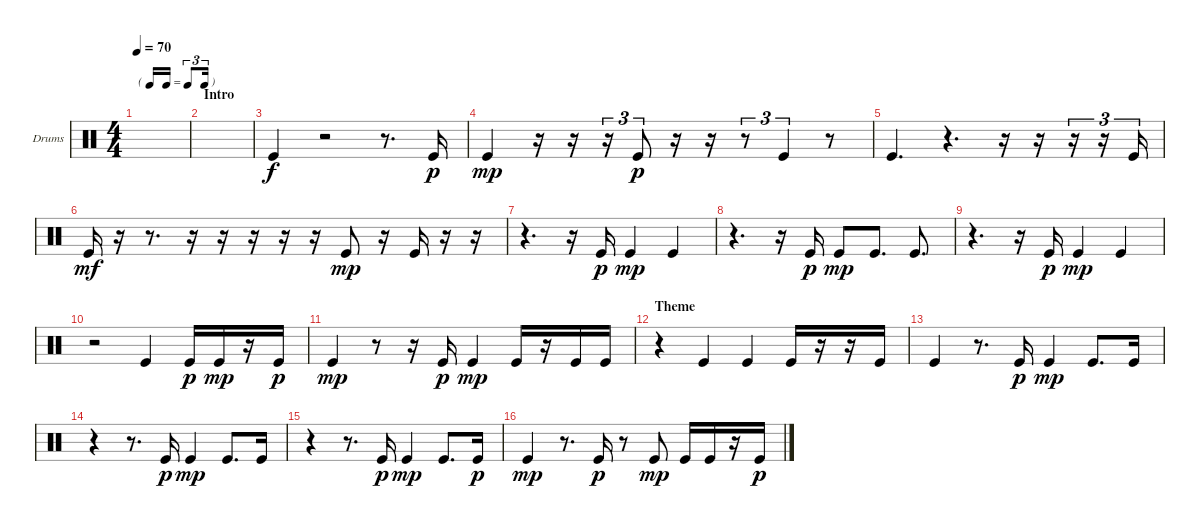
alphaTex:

\bracketExtendMode groupsimilarinstruments
\firstSystemTrackNameOrientation horizontal
\otherSystemsTrackNameOrientation horizontal
\track ("Kick" "Drums") {instrument percussion}
\staff {score}
\articulation defaults
\ts (4 4)
\tf triplet16th
\tempo 70
\clef neutral
\ks c
|
\section ("" "Intro")
|
\ks aminor "Kick (hit)".4
r.2 r.8{d} "Kick (hit)".16{dy p} |
"Kick (hit)".4{dy mp} r.16 r.16 r.16{tu (3 2)} "Kick (hit)".8{tu (3 2) dy p} r.16 r.16 r.8{tu (3 2)} "Kick (hit)".4{tu (3 2)} r.8 |
"Kick (hit)".4{d} r.4{d} r.16 r.16 r.16{tu (3 2)} r.16{tu (3 2)} "Kick (hit)".16{tu (3 2)} |
"Kick (hit)".16{dy mf} r.16 r.8{d} r.16 r.16 r.16 r.16 r.16 "Kick (hit)".8{dy mp} r.16 "Kick (hit)".16 r.16 r.16 |
r.4{d} r.16 "Kick (hit)".16{dy p} "Kick (hit)".4{dy mp} "Kick (hit)".4 |
r.4{d} r.16 "Kick (hit)".16{dy p} "Kick (hit)".8{dy mp} "Kick (hit)".8{d} "Kick (hit)".8{d} |
r.4{d} r.16 "Kick (hit)".16{dy p} "Kick (hit)".4{dy mp} "Kick (hit)".4 |
r.2 "Kick (hit)".4 "Kick (hit)".16{dy p} "Kick (hit)".16{dy mp} r.16 "Kick (hit)".16{dy p} |
"Kick (hit)".4{dy mp} r.8 r.16 "Kick (hit)".16{dy p} "Kick (hit)".4{dy mp} "Kick (hit)".16 r.16 "Kick (hit)".16 "Kick (hit)".16 |
\section ("" "Theme")
r.4 "Kick (hit)".4 "Kick (hit)".4 "Kick (hit)".16 r.16 r.16 "Kick (hit)".16 |
"Kick (hit)".4 r.8{d} "Kick (hit)".16{dy p} "Kick (hit)".4{dy mp} "Kick (hit)".8{d} "Kick (hit)".16 |
r.4 r.8{d} "Kick (hit)".16{dy p} "Kick (hit)".4{dy mp} "Kick (hit)".8{d} "Kick (hit)".16 |
r.4 r.8{d} "Kick (hit)".16{dy p} "Kick (hit)".4{dy mp} "Kick (hit)".8{d} "Kick (hit)".16{dy p} |
"Kick (hit)".4{dy mp} r.8{d} "Kick (hit)".16{dy p} r.8 "Kick (hit)".8{dy mp} "Kick (hit)".16 "Kick (hit)".16 r.16 "Kick (hit)".16{dy p}
